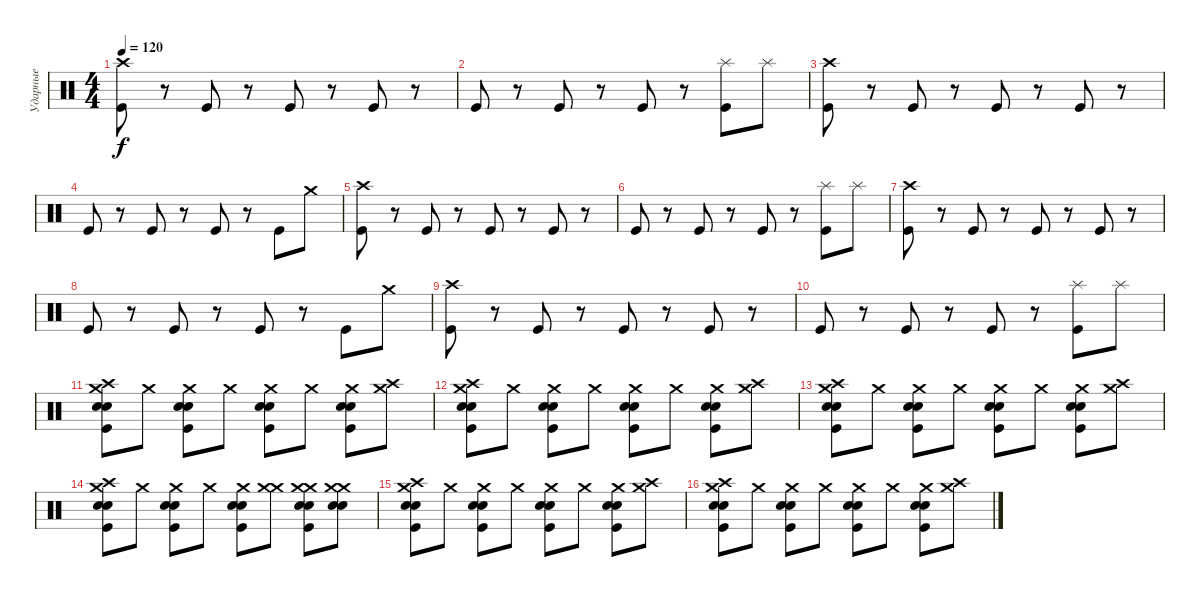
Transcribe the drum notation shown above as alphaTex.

\track ("Ударные" "Ударные") {instrument percussion}
\staff {score}
\articulation defaults
\ts (4 4)
\tempo 120
\clef neutral
\ks c
("Crash high (hit)" "Kick (hit)").8{dy f} r.8 "Kick (hit)".8 r.8 "Kick (hit)".8 r.8 "Kick (hit)".8 r.8 |
"Kick (hit)".8 r.8 "Kick (hit)".8 r.8 "Kick (hit)".8 r.8 ("Splash (hit)" "Kick (hit)").8 "Splash (hit)".8 |
("Crash high (hit)" "Kick (hit)").8 r.8 "Kick (hit)".8 r.8 "Kick (hit)".8 r.8 "Kick (hit)".8 r.8 |
"Kick (hit)".8 r.8 "Kick (hit)".8 r.8 "Kick (hit)".8 r.8 "Kick (hit)".8 "Crash medium (hit)".8 |
("Crash high (hit)" "Kick (hit)").8 r.8 "Kick (hit)".8 r.8 "Kick (hit)".8 r.8 "Kick (hit)".8 r.8 |
"Kick (hit)".8 r.8 "Kick (hit)".8 r.8 "Kick (hit)".8 r.8 ("Splash (hit)" "Kick (hit)").8 "Splash (hit)".8 |
("Crash high (hit)" "Kick (hit)").8 r.8 "Kick (hit)".8 r.8 "Kick (hit)".8 r.8 "Kick (hit)".8 r.8 |
"Kick (hit)".8 r.8 "Kick (hit)".8 r.8 "Kick (hit)".8 r.8 "Kick (hit)".8 "Crash medium (hit)".8 |
("Crash high (hit)" "Kick (hit)").8 r.8 "Kick (hit)".8 r.8 "Kick (hit)".8 r.8 "Kick (hit)".8 r.8 |
"Kick (hit)".8 r.8 "Kick (hit)".8 r.8 "Kick (hit)".8 r.8 ("Splash (hit)" "Kick (hit)").8 "Splash (hit)".8 |
("Crash medium (hit)" "Crash high (hit)" "Snare (hit) 2" "Snare (hit) 2" "Kick (hit)").8 "Crash medium (hit)".8 ("Crash medium (hit)" "Snare (hit) 2" "Snare (hit) 2" "Kick (hit)").8 "Crash medium (hit)".8 ("Crash medium (hit)" "Snare (hit) 2" "Snare (hit) 2" "Kick (hit)").8 "Crash medium (hit)".8 ("Crash medium (hit)" "Snare (hit) 2" "Snare (hit) 2" "Kick (hit)").8 ("Crash medium (hit)" "Crash high (hit)").8 |
("Crash medium (hit)" "Crash high (hit)" "Snare (hit) 2" "Snare (hit) 2" "Kick (hit)").8 "Crash medium (hit)".8 ("Crash medium (hit)" "Snare (hit) 2" "Snare (hit) 2" "Kick (hit)").8 "Crash medium (hit)".8 ("Crash medium (hit)" "Snare (hit) 2" "Snare (hit) 2" "Kick (hit)").8 "Crash medium (hit)".8 ("Crash medium (hit)" "Snare (hit) 2" "Snare (hit) 2" "Kick (hit)").8 ("Crash medium (hit)" "Crash high (hit)").8 |
("Crash medium (hit)" "Crash high (hit)" "Snare (hit) 2" "Snare (hit) 2" "Kick (hit)").8 "Crash medium (hit)".8 ("Crash medium (hit)" "Snare (hit) 2" "Snare (hit) 2" "Kick (hit)").8 "Crash medium (hit)".8 ("Crash medium (hit)" "Snare (hit) 2" "Snare (hit) 2" "Kick (hit)").8 "Crash medium (hit)".8 ("Crash medium (hit)" "Snare (hit) 2" "Snare (hit) 2" "Kick (hit)").8 ("Crash medium (hit)" "Crash high (hit)").8 |
("Crash medium (hit)" "Crash high (hit)" "Snare (hit) 2" "Snare (hit) 2" "Kick (hit)").8 "Crash medium (hit)".8 ("Crash medium (hit)" "Snare (hit) 2" "Snare (hit) 2" "Kick (hit)").8 "Crash medium (hit)".8 ("Crash medium (hit)" "Snare (hit) 2" "Snare (hit) 2" "Kick (hit)").8 ("Crash medium (hit)" "Crash medium (hit)").8 ("Crash medium (hit)" "Crash medium (hit)" "Snare (hit) 2" "Snare (hit) 2" "Kick (hit)").8 ("Crash medium (hit)" "Crash medium (hit)" "Electric Snare (hit)" "Electric Snare (hit)").8 |
("Crash medium (hit)" "Crash high (hit)" "Snare (hit) 2" "Snare (hit) 2" "Kick (hit)").8 "Crash medium (hit)".8 ("Crash medium (hit)" "Snare (hit) 2" "Snare (hit) 2" "Kick (hit)").8 "Crash medium (hit)".8 ("Crash medium (hit)" "Snare (hit) 2" "Snare (hit) 2" "Kick (hit)").8 "Crash medium (hit)".8 ("Crash medium (hit)" "Snare (hit) 2" "Snare (hit) 2" "Kick (hit)").8 ("Crash medium (hit)" "Crash high (hit)").8 |
("Crash medium (hit)" "Crash high (hit)" "Snare (hit) 2" "Snare (hit) 2" "Kick (hit)").8 "Crash medium (hit)".8 ("Crash medium (hit)" "Snare (hit) 2" "Snare (hit) 2" "Kick (hit)").8 "Crash medium (hit)".8 ("Crash medium (hit)" "Snare (hit) 2" "Snare (hit) 2" "Kick (hit)").8 "Crash medium (hit)".8 ("Crash medium (hit)" "Snare (hit) 2" "Snare (hit) 2" "Kick (hit)").8 ("Crash medium (hit)" "Crash high (hit)").8
